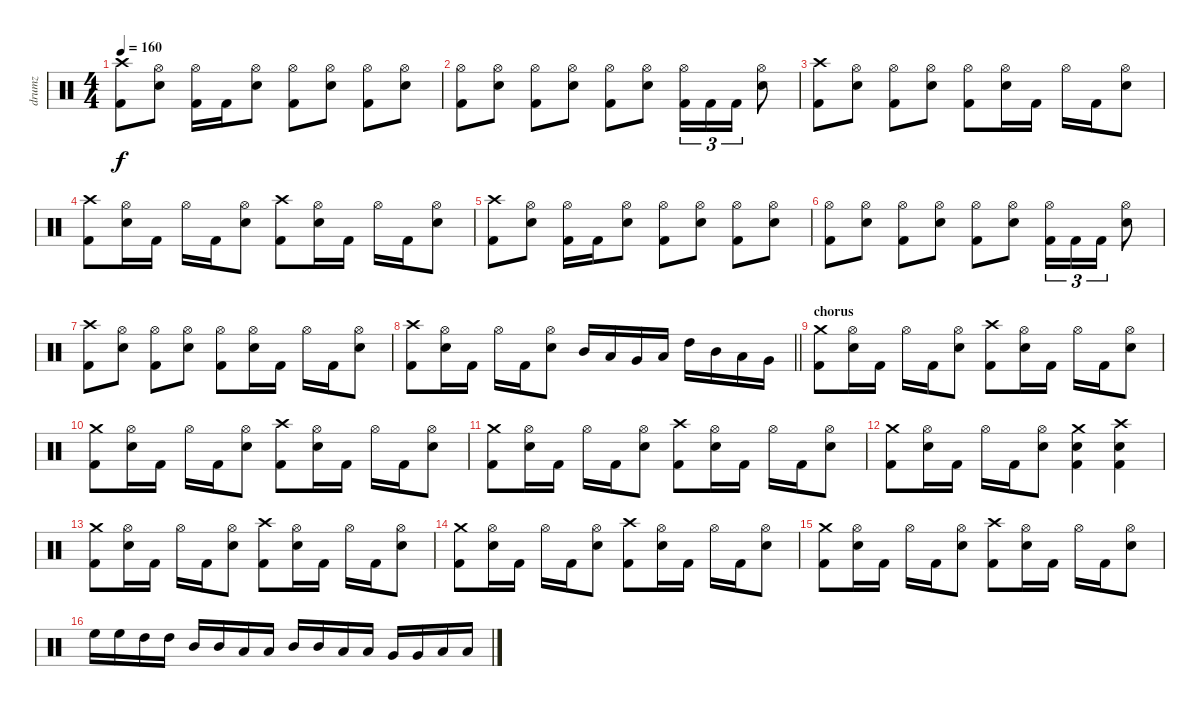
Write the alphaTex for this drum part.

\track ("drumz" "drumz") {instrument percussion}
\staff {score}
\articulation defaults
\ts (4 4)
\tempo 160
\clef neutral
\ks c
("Crash high (hit)" "Kick (hit) 2").8{dy f} ("Hi-Hat (open)" "Electric Snare (hit)").8 ("Hi-Hat (open)" "Kick (hit) 2").16 "Kick (hit) 2".16 ("Hi-Hat (open)" "Electric Snare (hit)").8 ("Hi-Hat (open)" "Kick (hit) 2").8 ("Hi-Hat (open)" "Electric Snare (hit)").8 ("Hi-Hat (open)" "Kick (hit) 2").8 ("Hi-Hat (open)" "Electric Snare (hit)").8 |
("Hi-Hat (open)" "Kick (hit) 2").8 ("Hi-Hat (open)" "Electric Snare (hit)").8 ("Hi-Hat (open)" "Kick (hit) 2").8 ("Hi-Hat (open)" "Electric Snare (hit)").8 ("Hi-Hat (open)" "Kick (hit) 2").8 ("Hi-Hat (open)" "Electric Snare (hit)").8 ("Hi-Hat (open)" "Kick (hit) 2").16{tu (3 2)} "Kick (hit) 2".16{tu (3 2)} "Kick (hit) 2".16{tu (3 2)} ("Hi-Hat (open)" "Electric Snare (hit)").8 |
("Crash high (hit)" "Kick (hit) 2").8 ("Hi-Hat (open)" "Electric Snare (hit)").8 ("Hi-Hat (open)" "Kick (hit) 2").8 ("Hi-Hat (open)" "Electric Snare (hit)").8 ("Hi-Hat (open)" "Kick (hit) 2").8 ("Hi-Hat (open)" "Electric Snare (hit)").16 "Kick (hit) 2".16 "Hi-Hat (open)".16 "Kick (hit) 2".16 ("Hi-Hat (open)" "Electric Snare (hit)").8 |
("Crash high (hit)" "Kick (hit) 2").8 ("Hi-Hat (open)" "Electric Snare (hit)").16 "Kick (hit) 2".16 "Hi-Hat (open)".16 "Kick (hit) 2".16 ("Hi-Hat (open)" "Electric Snare (hit)").8 ("Crash high (hit)" "Kick (hit) 2").8 ("Hi-Hat (open)" "Electric Snare (hit)").16 "Kick (hit) 2".16 "Hi-Hat (open)".16 "Kick (hit) 2".16 ("Hi-Hat (open)" "Electric Snare (hit)").8 |
("Crash high (hit)" "Kick (hit) 2").8 ("Hi-Hat (open)" "Electric Snare (hit)").8 ("Hi-Hat (open)" "Kick (hit) 2").16 "Kick (hit) 2".16 ("Hi-Hat (open)" "Electric Snare (hit)").8 ("Hi-Hat (open)" "Kick (hit) 2").8 ("Hi-Hat (open)" "Electric Snare (hit)").8 ("Hi-Hat (open)" "Kick (hit) 2").8 ("Hi-Hat (open)" "Electric Snare (hit)").8 |
("Hi-Hat (open)" "Kick (hit) 2").8 ("Hi-Hat (open)" "Electric Snare (hit)").8 ("Hi-Hat (open)" "Kick (hit) 2").8 ("Hi-Hat (open)" "Electric Snare (hit)").8 ("Hi-Hat (open)" "Kick (hit) 2").8 ("Hi-Hat (open)" "Electric Snare (hit)").8 ("Hi-Hat (open)" "Kick (hit) 2").16{tu (3 2)} "Kick (hit) 2".16{tu (3 2)} "Kick (hit) 2".16{tu (3 2)} ("Hi-Hat (open)" "Electric Snare (hit)").8 |
("Crash high (hit)" "Kick (hit) 2").8 ("Hi-Hat (open)" "Electric Snare (hit)").8 ("Hi-Hat (open)" "Kick (hit) 2").8 ("Hi-Hat (open)" "Electric Snare (hit)").8 ("Hi-Hat (open)" "Kick (hit) 2").8 ("Hi-Hat (open)" "Electric Snare (hit)").16 "Kick (hit) 2".16 "Hi-Hat (open)".16 "Kick (hit) 2".16 ("Hi-Hat (open)" "Electric Snare (hit)").8 |
\barLineRight lightlight
("Crash high (hit)" "Kick (hit) 2").8 ("Hi-Hat (open)" "Electric Snare (hit)").16 "Kick (hit) 2".16 "Hi-Hat (open)".16 "Kick (hit) 2".16 ("Hi-Hat (open)" "Electric Snare (hit)").8 "Mid Tom (hit)".16 "Low Tom (hit)".16 "Very Low Tom (hit)".16 "Low Floor Tom (hit)".16 "High Tom (hit)".16 "Mid Tom (hit)".16 "Low Tom (hit)".16 "Very Low Tom (hit)".16 |
\section ("" "chorus")
("Crash medium (hit)" "Kick (hit) 2").8 ("Hi-Hat (open)" "Electric Snare (hit)").16 "Kick (hit) 2".16 "Hi-Hat (open)".16 "Kick (hit) 2".16 ("Hi-Hat (open)" "Electric Snare (hit)").8 ("Crash high (hit)" "Kick (hit) 2").8 ("Hi-Hat (open)" "Electric Snare (hit)").16 "Kick (hit) 2".16 "Hi-Hat (open)".16 "Kick (hit) 2".16 ("Hi-Hat (open)" "Electric Snare (hit)").8 |
("Crash medium (hit)" "Kick (hit) 2").8 ("Hi-Hat (open)" "Electric Snare (hit)").16 "Kick (hit) 2".16 "Hi-Hat (open)".16 "Kick (hit) 2".16 ("Hi-Hat (open)" "Electric Snare (hit)").8 ("Crash high (hit)" "Kick (hit) 2").8 ("Hi-Hat (open)" "Electric Snare (hit)").16 "Kick (hit) 2".16 "Hi-Hat (open)".16 "Kick (hit) 2".16 ("Hi-Hat (open)" "Electric Snare (hit)").8 |
("Crash medium (hit)" "Kick (hit) 2").8 ("Hi-Hat (open)" "Electric Snare (hit)").16 "Kick (hit) 2".16 "Hi-Hat (open)".16 "Kick (hit) 2".16 ("Hi-Hat (open)" "Electric Snare (hit)").8 ("Crash high (hit)" "Kick (hit) 2").8 ("Hi-Hat (open)" "Electric Snare (hit)").16 "Kick (hit) 2".16 "Hi-Hat (open)".16 "Kick (hit) 2".16 ("Hi-Hat (open)" "Electric Snare (hit)").8 |
("Crash medium (hit)" "Kick (hit) 2").8 ("Hi-Hat (open)" "Electric Snare (hit)").16 "Kick (hit) 2".16 "Hi-Hat (open)".16 "Kick (hit) 2".16 ("Hi-Hat (open)" "Electric Snare (hit)").8 ("Crash medium (hit)" "Electric Snare (hit)" "Kick (hit) 2").4 ("Crash high (hit)" "Electric Snare (hit)" "Kick (hit) 2").4 |
("Crash medium (hit)" "Kick (hit) 2").8 ("Hi-Hat (open)" "Electric Snare (hit)").16 "Kick (hit) 2".16 "Hi-Hat (open)".16 "Kick (hit) 2".16 ("Hi-Hat (open)" "Electric Snare (hit)").8 ("Crash high (hit)" "Kick (hit) 2").8 ("Hi-Hat (open)" "Electric Snare (hit)").16 "Kick (hit) 2".16 "Hi-Hat (open)".16 "Kick (hit) 2".16 ("Hi-Hat (open)" "Electric Snare (hit)").8 |
("Crash medium (hit)" "Kick (hit) 2").8 ("Hi-Hat (open)" "Electric Snare (hit)").16 "Kick (hit) 2".16 "Hi-Hat (open)".16 "Kick (hit) 2".16 ("Hi-Hat (open)" "Electric Snare (hit)").8 ("Crash high (hit)" "Kick (hit) 2").8 ("Hi-Hat (open)" "Electric Snare (hit)").16 "Kick (hit) 2".16 "Hi-Hat (open)".16 "Kick (hit) 2".16 ("Hi-Hat (open)" "Electric Snare (hit)").8 |
("Crash medium (hit)" "Kick (hit) 2").8 ("Hi-Hat (open)" "Electric Snare (hit)").16 "Kick (hit) 2".16 "Hi-Hat (open)".16 "Kick (hit) 2".16 ("Hi-Hat (open)" "Electric Snare (hit)").8 ("Crash high (hit)" "Kick (hit) 2").8 ("Hi-Hat (open)" "Electric Snare (hit)").16 "Kick (hit) 2".16 "Hi-Hat (open)".16 "Kick (hit) 2".16 ("Hi-Hat (open)" "Electric Snare (hit)").8 |
"High Floor Tom (hit)".16 "High Floor Tom (hit)".16 "High Tom (hit)".16 "High Tom (hit)".16 "Mid Tom (hit)".16 "Mid Tom (hit)".16 "Low Tom (hit)".16 "Low Tom (hit)".16 "Mid Tom (hit)".16 "Mid Tom (hit)".16 "Low Tom (hit)".16 "Low Tom (hit)".16 "Very Low Tom (hit)".16 "Very Low Tom (hit)".16 "Low Floor Tom (hit)".16 "Low Floor Tom (hit)".16
